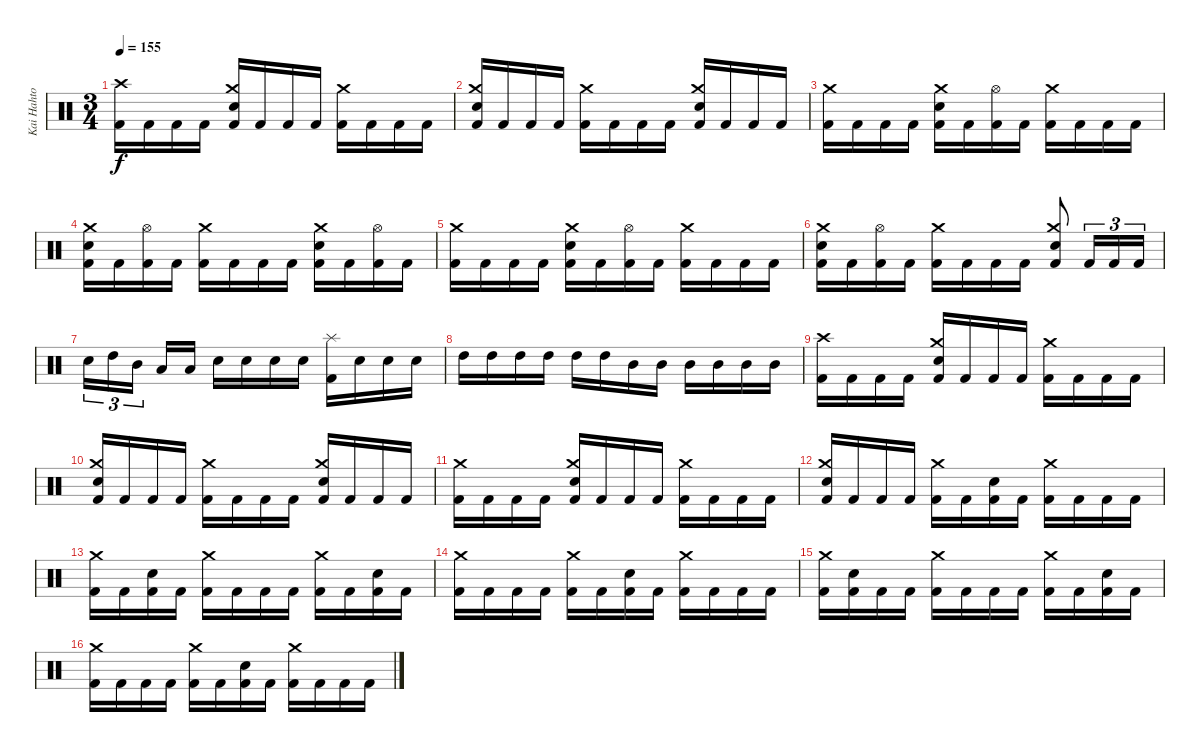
\track ("Kai Hahto" "Kai Hahto") {instrument percussion}
\staff {score}
\articulation defaults
\ts (3 4)
\tempo 155
\clef neutral
\ks c
("Crash high (hit)" "Kick (hit) 2").16{dy f} "Kick (hit) 2".16 "Kick (hit) 2".16 "Kick (hit) 2".16 ("Crash medium (hit)" "Electric Snare (hit)" "Kick (hit) 2").16 "Kick (hit) 2".16 "Kick (hit) 2".16 "Kick (hit) 2".16 ("Crash medium (hit)" "Kick (hit) 2").16 "Kick (hit) 2".16 "Kick (hit) 2".16 "Kick (hit) 2".16 |
("Crash medium (hit)" "Electric Snare (hit)" "Kick (hit) 2").16 "Kick (hit) 2".16 "Kick (hit) 2".16 "Kick (hit) 2".16 ("Crash medium (hit)" "Kick (hit) 2").16 "Kick (hit) 2".16 "Kick (hit) 2".16 "Kick (hit) 2".16 ("Crash medium (hit)" "Electric Snare (hit)" "Kick (hit) 2").16 "Kick (hit) 2".16 "Kick (hit) 2".16 "Kick (hit) 2".16 |
("Crash medium (hit)" "Kick (hit) 2").16 "Kick (hit) 2".16 "Kick (hit) 2".16 "Kick (hit) 2".16 ("Crash medium (hit)" "Electric Snare (hit)" "Kick (hit) 2").16 "Kick (hit) 2".16 ("Hi-Hat (open)" "Kick (hit) 2").16 "Kick (hit) 2".16 ("Crash medium (hit)" "Kick (hit) 2").16 "Kick (hit) 2".16 "Kick (hit) 2".16 "Kick (hit) 2".16 |
("Crash medium (hit)" "Electric Snare (hit)" "Kick (hit) 2").16 "Kick (hit) 2".16 ("Hi-Hat (open)" "Kick (hit) 2").16 "Kick (hit) 2".16 ("Crash medium (hit)" "Kick (hit) 2").16 "Kick (hit) 2".16 "Kick (hit) 2".16 "Kick (hit) 2".16 ("Crash medium (hit)" "Electric Snare (hit)" "Kick (hit) 2").16 "Kick (hit) 2".16 ("Hi-Hat (open)" "Kick (hit) 2").16 "Kick (hit) 2".16 |
("Crash medium (hit)" "Kick (hit) 2").16 "Kick (hit) 2".16 "Kick (hit) 2".16 "Kick (hit) 2".16 ("Crash medium (hit)" "Electric Snare (hit)" "Kick (hit) 2").16 "Kick (hit) 2".16 ("Hi-Hat (open)" "Kick (hit) 2").16 "Kick (hit) 2".16 ("Crash medium (hit)" "Kick (hit) 2").16 "Kick (hit) 2".16 "Kick (hit) 2".16 "Kick (hit) 2".16 |
("Crash medium (hit)" "Electric Snare (hit)" "Kick (hit) 2").16 "Kick (hit) 2".16 ("Hi-Hat (open)" "Kick (hit) 2").16 "Kick (hit) 2".16 ("Crash medium (hit)" "Kick (hit) 2").16 "Kick (hit) 2".16 "Kick (hit) 2".16 "Kick (hit) 2".16 ("Crash medium (hit)" "Electric Snare (hit)" "Kick (hit) 2").8 "Kick (hit) 2".16{tu (3 2)} "Kick (hit) 2".16{tu (3 2)} "Kick (hit) 2".16{tu (3 2)} |
"Electric Snare (hit)".16{tu (3 2)} "High Tom (hit)".16{tu (3 2)} "Mid Tom (hit)".16{tu (3 2)} "Low Tom (hit)".16 "Low Tom (hit)".16 "Electric Snare (hit)".16 "Electric Snare (hit)".16 "Electric Snare (hit)".16 "Electric Snare (hit)".16 ("Splash (hit)" "Kick (hit) 2").16 "Electric Snare (hit)".16 "Electric Snare (hit)".16 "Electric Snare (hit)".16 |
"High Tom (hit)".16 "High Tom (hit)".16 "High Tom (hit)".16 "High Tom (hit)".16 "High Tom (hit)".16 "High Tom (hit)".16 "Mid Tom (hit)".16 "Mid Tom (hit)".16 "Mid Tom (hit)".16 "Mid Tom (hit)".16 "Mid Tom (hit)".16 "Mid Tom (hit)".16 |
("Crash high (hit)" "Kick (hit) 2").16{volume 12} "Kick (hit) 2".16 "Kick (hit) 2".16 "Kick (hit) 2".16 ("Crash medium (hit)" "Electric Snare (hit)" "Kick (hit) 2").16 "Kick (hit) 2".16 "Kick (hit) 2".16 "Kick (hit) 2".16 ("Crash medium (hit)" "Kick (hit) 2").16 "Kick (hit) 2".16 "Kick (hit) 2".16 "Kick (hit) 2".16 |
("Crash medium (hit)" "Electric Snare (hit)" "Kick (hit) 2").16 "Kick (hit) 2".16 "Kick (hit) 2".16 "Kick (hit) 2".16 ("Crash medium (hit)" "Kick (hit) 2").16 "Kick (hit) 2".16 "Kick (hit) 2".16 "Kick (hit) 2".16 ("Crash medium (hit)" "Electric Snare (hit)" "Kick (hit) 2").16 "Kick (hit) 2".16 "Kick (hit) 2".16 "Kick (hit) 2".16 |
("Crash medium (hit)" "Kick (hit) 2").16 "Kick (hit) 2".16 "Kick (hit) 2".16 "Kick (hit) 2".16 ("Crash medium (hit)" "Electric Snare (hit)" "Kick (hit) 2").16 "Kick (hit) 2".16 "Kick (hit) 2".16 "Kick (hit) 2".16 ("Crash medium (hit)" "Kick (hit) 2").16 "Kick (hit) 2".16 "Kick (hit) 2".16 "Kick (hit) 2".16 |
("Crash medium (hit)" "Electric Snare (hit)" "Kick (hit) 2").16 "Kick (hit) 2".16 "Kick (hit) 2".16 "Kick (hit) 2".16 ("Crash medium (hit)" "Kick (hit) 2").16 "Kick (hit) 2".16 ("Electric Snare (hit)" "Kick (hit) 2").16 "Kick (hit) 2".16 ("Crash medium (hit)" "Kick (hit) 2").16 "Kick (hit) 2".16 "Kick (hit) 2".16 "Kick (hit) 2".16 |
("Crash medium (hit)" "Kick (hit) 2").16{volume 0} "Kick (hit) 2".16 ("Electric Snare (hit)" "Kick (hit) 2").16 "Kick (hit) 2".16 ("Crash medium (hit)" "Kick (hit) 2").16 "Kick (hit) 2".16 "Kick (hit) 2".16 "Kick (hit) 2".16 ("Crash medium (hit)" "Kick (hit) 2").16 "Kick (hit) 2".16 ("Electric Snare (hit)" "Kick (hit) 2").16 "Kick (hit) 2".16 |
("Crash medium (hit)" "Kick (hit) 2").16 "Kick (hit) 2".16 "Kick (hit) 2".16 "Kick (hit) 2".16 ("Crash medium (hit)" "Kick (hit) 2").16 "Kick (hit) 2".16 ("Electric Snare (hit)" "Kick (hit) 2").16 "Kick (hit) 2".16 ("Crash medium (hit)" "Kick (hit) 2").16 "Kick (hit) 2".16 "Kick (hit) 2".16 "Kick (hit) 2".16 |
("Crash medium (hit)" "Kick (hit) 2").16 ("Electric Snare (hit)" "Kick (hit) 2").16 "Kick (hit) 2".16 "Kick (hit) 2".16 ("Crash medium (hit)" "Kick (hit) 2").16 "Kick (hit) 2".16 "Kick (hit) 2".16 "Kick (hit) 2".16 ("Crash medium (hit)" "Kick (hit) 2").16 "Kick (hit) 2".16 ("Electric Snare (hit)" "Kick (hit) 2").16 "Kick (hit) 2".16 |
("Crash medium (hit)" "Kick (hit) 2").16 "Kick (hit) 2".16 "Kick (hit) 2".16 "Kick (hit) 2".16 ("Crash medium (hit)" "Kick (hit) 2").16 "Kick (hit) 2".16 ("Electric Snare (hit)" "Kick (hit) 2").16 "Kick (hit) 2".16 ("Crash medium (hit)" "Kick (hit) 2").16 "Kick (hit) 2".16 "Kick (hit) 2".16 "Kick (hit) 2".16
